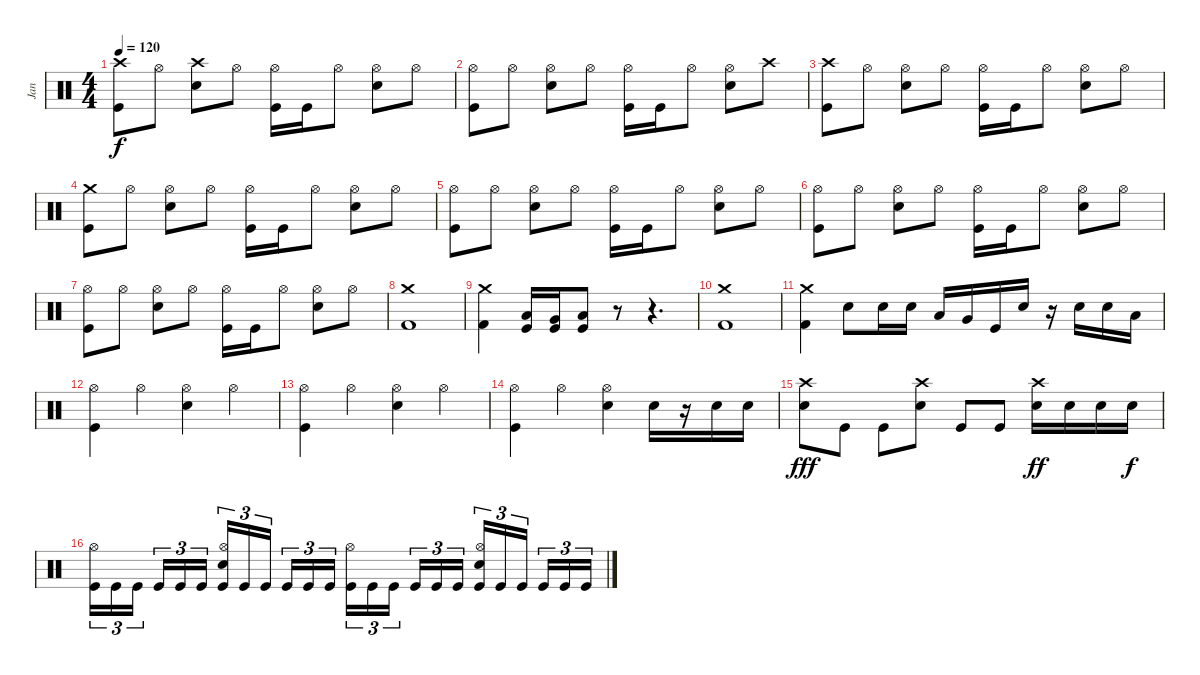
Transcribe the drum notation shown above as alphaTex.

\track ("Jan" "Jan") {instrument percussion}
\staff {score}
\articulation defaults
\ts (4 4)
\tempo 120
\clef neutral
\ks c
("Crash high (hit)" "Kick (hit)").8{dy f} "Hi-Hat (open)".8 ("Crash high (hit)" "Snare (hit) 2").8 "Hi-Hat (open)".8 ("Hi-Hat (open)" "Kick (hit)").16 "Kick (hit)".16 "Hi-Hat (open)".8 ("Hi-Hat (open)" "Snare (hit) 2").8 "Hi-Hat (open)".8 |
("Hi-Hat (open)" "Kick (hit)").8 "Hi-Hat (open)".8 ("Hi-Hat (open)" "Snare (hit) 2").8 "Hi-Hat (open)".8 ("Hi-Hat (open)" "Kick (hit)").16 "Kick (hit)".16 "Hi-Hat (open)".8 ("Hi-Hat (open)" "Snare (hit) 2").8 "Crash high (hit)".8 |
("Crash high (hit)" "Kick (hit)").8 "Hi-Hat (open)".8 ("Hi-Hat (open)" "Snare (hit) 2").8 "Hi-Hat (open)".8 ("Hi-Hat (open)" "Kick (hit)").16 "Kick (hit)".16 "Hi-Hat (open)".8 ("Hi-Hat (open)" "Snare (hit) 2").8 "Hi-Hat (open)".8 |
("Crash medium (hit)" "Kick (hit)").8 "Hi-Hat (open)".8 ("Hi-Hat (open)" "Snare (hit) 2").8 "Hi-Hat (open)".8 ("Hi-Hat (open)" "Kick (hit)").16 "Kick (hit)".16 "Hi-Hat (open)".8 ("Hi-Hat (open)" "Snare (hit) 2").8 "Hi-Hat (open)".8 |
("Hi-Hat (open)" "Kick (hit)").8 "Hi-Hat (open)".8 ("Hi-Hat (open)" "Snare (hit) 2").8 "Hi-Hat (open)".8 ("Hi-Hat (open)" "Kick (hit)").16 "Kick (hit)".16 "Hi-Hat (open)".8 ("Hi-Hat (open)" "Snare (hit) 2").8 "Hi-Hat (open)".8 |
("Hi-Hat (open)" "Kick (hit)").8 "Hi-Hat (open)".8 ("Hi-Hat (open)" "Snare (hit) 2").8 "Hi-Hat (open)".8 ("Hi-Hat (open)" "Kick (hit)").16 "Kick (hit)".16 "Hi-Hat (open)".8 ("Hi-Hat (open)" "Snare (hit) 2").8 "Hi-Hat (open)".8 |
("Hi-Hat (open)" "Kick (hit)").8 "Hi-Hat (open)".8 ("Hi-Hat (open)" "Snare (hit) 2").8 "Hi-Hat (open)".8 ("Hi-Hat (open)" "Kick (hit)").16 "Kick (hit)".16 "Hi-Hat (open)".8 ("Hi-Hat (open)" "Snare (hit) 2").8 "Hi-Hat (open)".8 |
("Crash medium (hit)" "Kick (hit) 2").1 |
("Crash medium (hit)" "Kick (hit) 2").4 ("Low Tom (hit)" "Kick (hit)").16 ("Very Low Tom (hit)" "Kick (hit)").16 ("Low Floor Tom (hit)" "Kick (hit)").8 r.8 r.4{d} |
("Crash medium (hit)" "Kick (hit) 2").1 |
("Crash medium (hit)" "Kick (hit) 2").4 "Snare (hit) 2".8 "Snare (hit) 2".16 "Snare (hit) 2".16 "Low Tom (hit)".16 "Very Low Tom (hit)".16 "Kick (hit)".16 "Snare (hit) 2".16 r.16 "Snare (hit) 2".16 "Snare (hit) 2".16 "Low Tom (hit)".16 |
("Hi-Hat (open)" "Kick (hit)").4 "Hi-Hat (open)".4 ("Hi-Hat (open)" "Snare (hit) 2").4 "Hi-Hat (open)".4 |
("Hi-Hat (open)" "Kick (hit)").4 "Hi-Hat (open)".4 ("Hi-Hat (open)" "Snare (hit) 2").4 "Hi-Hat (open)".4 |
("Hi-Hat (open)" "Kick (hit)").4 "Hi-Hat (open)".4 ("Hi-Hat (open)" "Snare (hit) 2").4 "Snare (hit) 2".16 r.16 "Snare (hit) 2".16 "Snare (hit) 2".16 |
("Crash high (hit)" "Snare (hit) 2").8{dy fff} "Kick (hit)".8 "Kick (hit)".8 ("Crash high (hit)" "Snare (hit) 2").8 "Kick (hit)".8 "Kick (hit)".8 ("Crash high (hit)" "Snare (hit) 2").16{dy ff} "Snare (hit) 2".16 "Snare (hit) 2".16 "Snare (hit) 2".16{dy f} |
("Hi-Hat (open)" "Kick (hit)").16{tu (3 2)} "Kick (hit)".16{tu (3 2)} "Kick (hit)".16{tu (3 2)} "Kick (hit)".16{tu (3 2)} "Kick (hit)".16{tu (3 2)} "Kick (hit)".16{tu (3 2)} ("Hi-Hat (open)" "Snare (hit) 2" "Kick (hit)").16{tu (3 2)} "Kick (hit)".16{tu (3 2)} "Kick (hit)".16{tu (3 2)} "Kick (hit)".16{tu (3 2)} "Kick (hit)".16{tu (3 2)} "Kick (hit)".16{tu (3 2)} ("Hi-Hat (open)" "Kick (hit)").16{tu (3 2)} "Kick (hit)".16{tu (3 2)} "Kick (hit)".16{tu (3 2)} "Kick (hit)".16{tu (3 2)} "Kick (hit)".16{tu (3 2)} "Kick (hit)".16{tu (3 2)} ("Hi-Hat (open)" "Snare (hit) 2" "Kick (hit)").16{tu (3 2)} "Kick (hit)".16{tu (3 2)} "Kick (hit)".16{tu (3 2)} "Kick (hit)".16{tu (3 2)} "Kick (hit)".16{tu (3 2)} "Kick (hit)".16{tu (3 2)}
